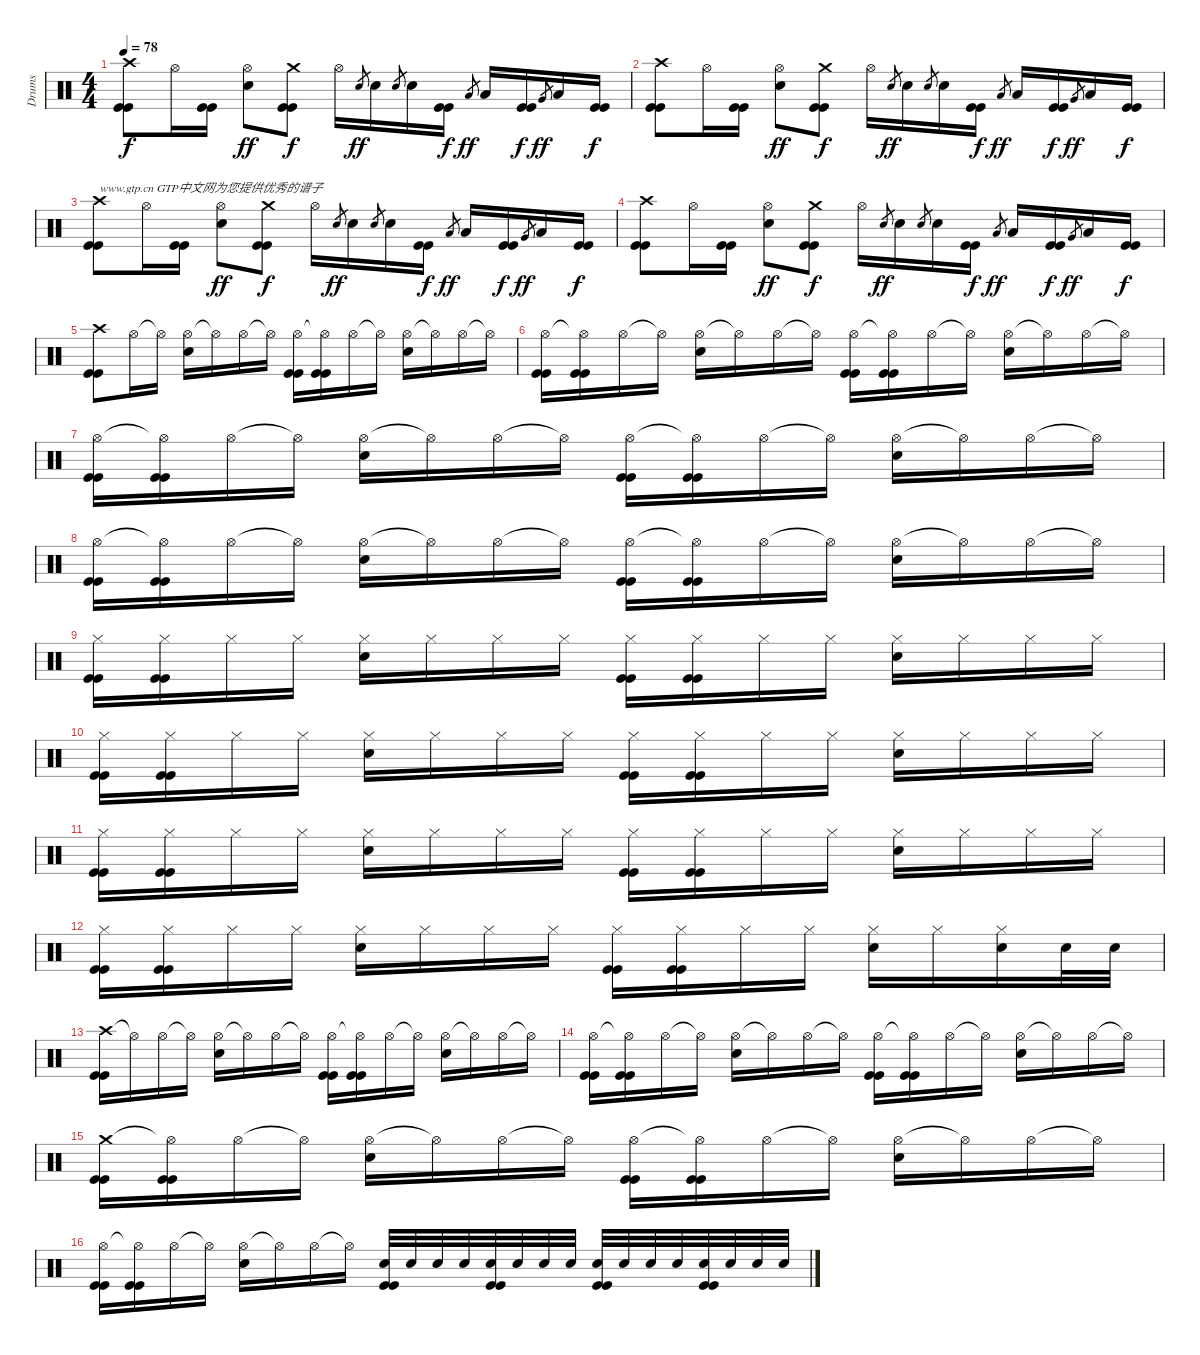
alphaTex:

\track ("Drums" "Drums") {instrument percussion}
\staff {score}
\articulation defaults
\ts (4 4)
\tempo 78
\clef neutral
\ks c
("Crash high (hit)" "Kick (hit)" "Kick (hit)").8{dy f} "Hi-Hat (open)".16 ("Kick (hit)" "Kick (hit)").16 ("Hi-Hat (open)" "Electric Snare (hit)").8{dy ff} ("Crash medium (hit)" "Kick (hit)" "Kick (hit)").8{dy f} "Hi-Hat (open)".16 "Electric Snare (hit)".8{gr dy ff} "Electric Snare (hit)".16 "Electric Snare (hit)".8{gr} "Electric Snare (hit)".16 ("Kick (hit)" "Kick (hit)").16{dy f} "Low Tom (hit)".8{gr dy ff} "Low Tom (hit)".16 ("Kick (hit)" "Kick (hit)").16{dy f} "Very Low Tom (hit)".8{gr dy ff} "Low Floor Tom (hit)".16 ("Kick (hit)" "Kick (hit)").16{dy f} |
("Crash high (hit)" "Kick (hit)" "Kick (hit)").8 "Hi-Hat (open)".16 ("Kick (hit)" "Kick (hit)").16 ("Hi-Hat (open)" "Electric Snare (hit)").8{dy ff} ("Crash medium (hit)" "Kick (hit)" "Kick (hit)").8{dy f} "Hi-Hat (open)".16 "Electric Snare (hit)".8{gr dy ff} "Electric Snare (hit)".16 "Electric Snare (hit)".8{gr} "Electric Snare (hit)".16 ("Kick (hit)" "Kick (hit)").16{dy f} "Low Tom (hit)".8{gr dy ff} "Low Tom (hit)".16 ("Kick (hit)" "Kick (hit)").16{dy f} "Very Low Tom (hit)".8{gr dy ff} "Low Floor Tom (hit)".16 ("Kick (hit)" "Kick (hit)").16{dy f} |
("Crash high (hit)" "Kick (hit)" "Kick (hit)").8{txt "www.gtp.cn GTP中文网为您提供优秀的谱子"} "Hi-Hat (open)".16 ("Kick (hit)" "Kick (hit)").16 ("Hi-Hat (open)" "Electric Snare (hit)").8{dy ff} ("Crash medium (hit)" "Kick (hit)" "Kick (hit)").8{dy f} "Hi-Hat (open)".16 "Electric Snare (hit)".8{gr dy ff} "Electric Snare (hit)".16 "Electric Snare (hit)".8{gr} "Electric Snare (hit)".16 ("Kick (hit)" "Kick (hit)").16{dy f} "Low Tom (hit)".8{gr dy ff} "Low Tom (hit)".16 ("Kick (hit)" "Kick (hit)").16{dy f} "Very Low Tom (hit)".8{gr dy ff} "Low Floor Tom (hit)".16 ("Kick (hit)" "Kick (hit)").16{dy f} |
("Crash high (hit)" "Kick (hit)" "Kick (hit)").8 "Hi-Hat (open)".16 ("Kick (hit)" "Kick (hit)").16 ("Hi-Hat (open)" "Electric Snare (hit)").8{dy ff} ("Crash medium (hit)" "Kick (hit)" "Kick (hit)").8{dy f} "Hi-Hat (open)".16 "Electric Snare (hit)".8{gr dy ff} "Electric Snare (hit)".16 "Electric Snare (hit)".8{gr} "Electric Snare (hit)".16 ("Kick (hit)" "Kick (hit)").16{dy f} "Low Tom (hit)".8{gr dy ff} "Low Tom (hit)".16 ("Kick (hit)" "Kick (hit)").16{dy f} "Very Low Tom (hit)".8{gr dy ff} "Low Floor Tom (hit)".16 ("Kick (hit)" "Kick (hit)").16{dy f} |
("Crash high (hit)" "Kick (hit)" "Kick (hit)").8 "Hi-Hat (open)".16 "Hi-Hat (open)"{t}.16 ("Hi-Hat (open)" "Electric Snare (hit)").16 "Hi-Hat (open)"{t}.16 "Hi-Hat (open)".16 "Hi-Hat (open)"{t}.16 ("Hi-Hat (open)" "Kick (hit)" "Kick (hit)").16 ("Hi-Hat (open)"{t} "Kick (hit)" "Kick (hit)").16 "Hi-Hat (open)".16 "Hi-Hat (open)"{t}.16 ("Hi-Hat (open)" "Electric Snare (hit)").16 "Hi-Hat (open)"{t}.16 "Hi-Hat (open)".16 "Hi-Hat (open)"{t}.16 |
("Hi-Hat (open)" "Kick (hit)" "Kick (hit)").16 ("Hi-Hat (open)"{t} "Kick (hit)" "Kick (hit)").16 "Hi-Hat (open)".16 "Hi-Hat (open)"{t}.16 ("Hi-Hat (open)" "Electric Snare (hit)").16 "Hi-Hat (open)"{t}.16 "Hi-Hat (open)".16 "Hi-Hat (open)"{t}.16 ("Hi-Hat (open)" "Kick (hit)" "Kick (hit)").16 ("Hi-Hat (open)"{t} "Kick (hit)" "Kick (hit)").16 "Hi-Hat (open)".16 "Hi-Hat (open)"{t}.16 ("Hi-Hat (open)" "Electric Snare (hit)").16 "Hi-Hat (open)"{t}.16 "Hi-Hat (open)".16 "Hi-Hat (open)"{t}.16 |
("Hi-Hat (open)" "Kick (hit)" "Kick (hit)").16 ("Hi-Hat (open)"{t} "Kick (hit)" "Kick (hit)").16 "Hi-Hat (open)".16 "Hi-Hat (open)"{t}.16 ("Hi-Hat (open)" "Electric Snare (hit)").16 "Hi-Hat (open)"{t}.16 "Hi-Hat (open)".16 "Hi-Hat (open)"{t}.16 ("Hi-Hat (open)" "Kick (hit)" "Kick (hit)").16 ("Hi-Hat (open)"{t} "Kick (hit)" "Kick (hit)").16 "Hi-Hat (open)".16 "Hi-Hat (open)"{t}.16 ("Hi-Hat (open)" "Electric Snare (hit)").16 "Hi-Hat (open)"{t}.16 "Hi-Hat (open)".16 "Hi-Hat (open)"{t}.16 |
("Hi-Hat (open)" "Kick (hit)" "Kick (hit)").16 ("Hi-Hat (open)"{t} "Kick (hit)" "Kick (hit)").16 "Hi-Hat (open)".16 "Hi-Hat (open)"{t}.16 ("Hi-Hat (open)" "Electric Snare (hit)").16 "Hi-Hat (open)"{t}.16 "Hi-Hat (open)".16 "Hi-Hat (open)"{t}.16 ("Hi-Hat (open)" "Kick (hit)" "Kick (hit)").16 ("Hi-Hat (open)"{t} "Kick (hit)" "Kick (hit)").16 "Hi-Hat (open)".16 "Hi-Hat (open)"{t}.16 ("Hi-Hat (open)" "Electric Snare (hit)").16 "Hi-Hat (open)"{t}.16 "Hi-Hat (open)".16 "Hi-Hat (open)"{t}.16 |
("Hi-Hat (closed)" "Kick (hit)" "Kick (hit)").16 ("Hi-Hat (closed)" "Kick (hit)" "Kick (hit)").16 "Hi-Hat (closed)".16 "Hi-Hat (closed)".16 ("Hi-Hat (closed)" "Electric Snare (hit)").16 "Hi-Hat (closed)".16 "Hi-Hat (closed)".16 "Hi-Hat (closed)".16 ("Hi-Hat (closed)" "Kick (hit)" "Kick (hit)").16 ("Hi-Hat (closed)" "Kick (hit)" "Kick (hit)").16 "Hi-Hat (closed)".16 "Hi-Hat (closed)".16 ("Hi-Hat (closed)" "Electric Snare (hit)").16 "Hi-Hat (closed)".16 "Hi-Hat (closed)".16 "Hi-Hat (closed)".16 |
("Hi-Hat (closed)" "Kick (hit)" "Kick (hit)").16 ("Hi-Hat (closed)" "Kick (hit)" "Kick (hit)").16 "Hi-Hat (closed)".16 "Hi-Hat (closed)".16 ("Hi-Hat (closed)" "Electric Snare (hit)").16 "Hi-Hat (closed)".16 "Hi-Hat (closed)".16 "Hi-Hat (closed)".16 ("Hi-Hat (closed)" "Kick (hit)" "Kick (hit)").16 ("Hi-Hat (closed)" "Kick (hit)" "Kick (hit)").16 "Hi-Hat (closed)".16 "Hi-Hat (closed)".16 ("Hi-Hat (closed)" "Electric Snare (hit)").16 "Hi-Hat (closed)".16 "Hi-Hat (closed)".16 "Hi-Hat (closed)".16 |
("Hi-Hat (closed)" "Kick (hit)" "Kick (hit)").16 ("Hi-Hat (closed)" "Kick (hit)" "Kick (hit)").16 "Hi-Hat (closed)".16 "Hi-Hat (closed)".16 ("Hi-Hat (closed)" "Electric Snare (hit)").16 "Hi-Hat (closed)".16 "Hi-Hat (closed)".16 "Hi-Hat (closed)".16 ("Hi-Hat (closed)" "Kick (hit)" "Kick (hit)").16 ("Hi-Hat (closed)" "Kick (hit)" "Kick (hit)").16 "Hi-Hat (closed)".16 "Hi-Hat (closed)".16 ("Hi-Hat (closed)" "Electric Snare (hit)").16 "Hi-Hat (closed)".16 "Hi-Hat (closed)".16 "Hi-Hat (closed)".16 |
("Hi-Hat (closed)" "Kick (hit)" "Kick (hit)").16 ("Hi-Hat (closed)" "Kick (hit)" "Kick (hit)").16 "Hi-Hat (closed)".16 "Hi-Hat (closed)".16 ("Hi-Hat (closed)" "Electric Snare (hit)").16 "Hi-Hat (closed)".16 "Hi-Hat (closed)".16 "Hi-Hat (closed)".16 ("Hi-Hat (closed)" "Kick (hit)" "Kick (hit)").16 ("Hi-Hat (closed)" "Kick (hit)" "Kick (hit)").16 "Hi-Hat (closed)".16 "Hi-Hat (closed)".16 ("Hi-Hat (closed)" "Electric Snare (hit)").16 "Hi-Hat (closed)".16 ("Hi-Hat (closed)" "Electric Snare (hit)").16 "Electric Snare (hit)".32 "Electric Snare (hit)".32 |
("Crash high (hit)" "Kick (hit)" "Kick (hit)").16 "Hi-Hat (open)"{t}.16 "Hi-Hat (open)".16 "Hi-Hat (open)"{t}.16 ("Hi-Hat (open)" "Electric Snare (hit)").16 "Hi-Hat (open)"{t}.16 "Hi-Hat (open)".16 "Hi-Hat (open)"{t}.16 ("Hi-Hat (open)" "Kick (hit)" "Kick (hit)").16 ("Hi-Hat (open)"{t} "Kick (hit)" "Kick (hit)").16 "Hi-Hat (open)".16 "Hi-Hat (open)"{t}.16 ("Hi-Hat (open)" "Electric Snare (hit)").16 "Hi-Hat (open)"{t}.16 "Hi-Hat (open)".16 "Hi-Hat (open)"{t}.16 |
("Hi-Hat (open)" "Kick (hit)" "Kick (hit)").16 ("Hi-Hat (open)"{t} "Kick (hit)" "Kick (hit)").16 "Hi-Hat (open)".16 "Hi-Hat (open)"{t}.16 ("Hi-Hat (open)" "Electric Snare (hit)").16 "Hi-Hat (open)"{t}.16 "Hi-Hat (open)".16 "Hi-Hat (open)"{t}.16 ("Hi-Hat (open)" "Kick (hit)" "Kick (hit)").16 ("Hi-Hat (open)"{t} "Kick (hit)" "Kick (hit)").16 "Hi-Hat (open)".16 "Hi-Hat (open)"{t}.16 ("Hi-Hat (open)" "Electric Snare (hit)").16 "Hi-Hat (open)"{t}.16 "Hi-Hat (open)".16 "Hi-Hat (open)"{t}.16 |
("Crash medium (hit)" "Kick (hit)" "Kick (hit)").16 ("Hi-Hat (open)"{t} "Kick (hit)" "Kick (hit)").16 "Hi-Hat (open)".16 "Hi-Hat (open)"{t}.16 ("Hi-Hat (open)" "Electric Snare (hit)").16 "Hi-Hat (open)"{t}.16 "Hi-Hat (open)".16 "Hi-Hat (open)"{t}.16 ("Hi-Hat (open)" "Kick (hit)" "Kick (hit)").16 ("Hi-Hat (open)"{t} "Kick (hit)" "Kick (hit)").16 "Hi-Hat (open)".16 "Hi-Hat (open)"{t}.16 ("Hi-Hat (open)" "Electric Snare (hit)").16 "Hi-Hat (open)"{t}.16 "Hi-Hat (open)".16 "Hi-Hat (open)"{t}.16 |
("Hi-Hat (open)" "Kick (hit)" "Kick (hit)").16 ("Hi-Hat (open)"{t} "Kick (hit)" "Kick (hit)").16 "Hi-Hat (open)".16 "Hi-Hat (open)"{t}.16 ("Hi-Hat (open)" "Electric Snare (hit)").16 "Hi-Hat (open)"{t}.16 "Hi-Hat (open)".16 "Hi-Hat (open)"{t}.16 ("Electric Snare (hit)" "Kick (hit)" "Kick (hit)").32 "Electric Snare (hit)".32 "Electric Snare (hit)".32 "Electric Snare (hit)".32 ("Electric Snare (hit)" "Kick (hit)" "Kick (hit)").32 "Electric Snare (hit)".32 "Electric Snare (hit)".32 "Electric Snare (hit)".32 ("Electric Snare (hit)" "Kick (hit)" "Kick (hit)").32 "Electric Snare (hit)".32 "Electric Snare (hit)".32 "Electric Snare (hit)".32 ("Electric Snare (hit)" "Kick (hit)" "Kick (hit)").32 "Electric Snare (hit)".32 "Electric Snare (hit)".32 "Electric Snare (hit)".32
